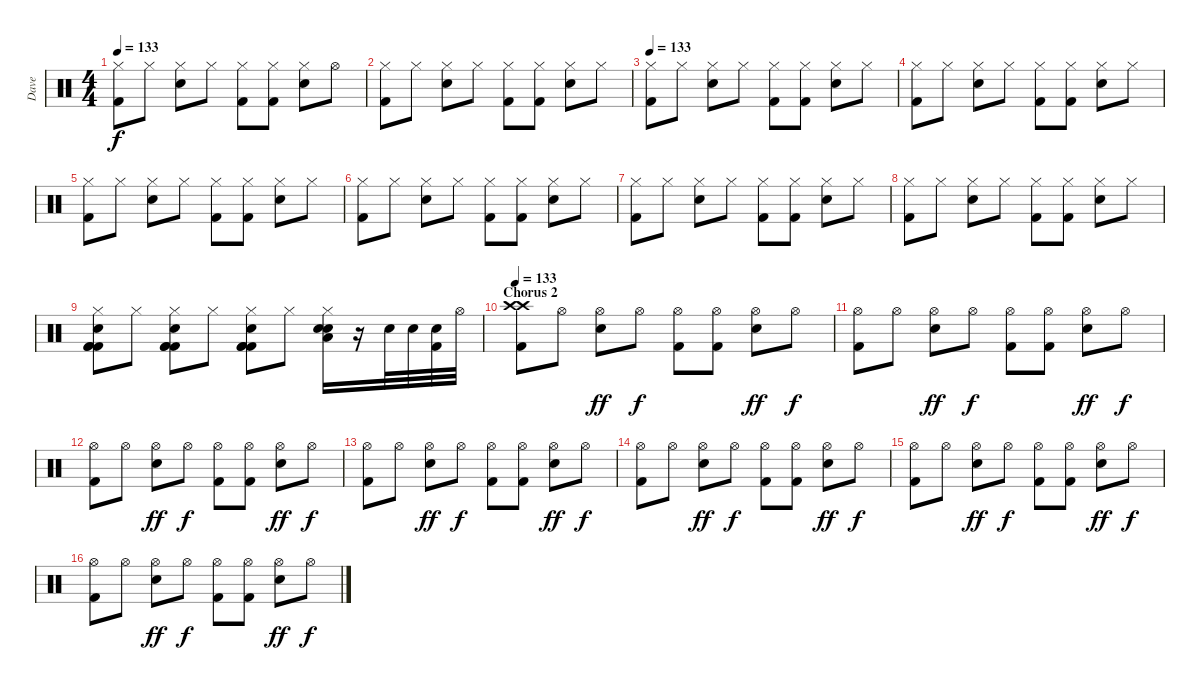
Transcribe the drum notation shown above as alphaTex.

\track ("Dave" "Dave") {instrument percussion}
\staff {score}
\articulation defaults
\ts (4 4)
\tempo 133
\clef neutral
\ks c
("Hi-Hat (closed)" "Kick (hit) 2").8{dy f} "Hi-Hat (closed)".8 ("Hi-Hat (closed)" "Snare (hit) 2").8 "Hi-Hat (closed)".8 ("Hi-Hat (closed)" "Kick (hit) 2").8 ("Hi-Hat (closed)" "Kick (hit) 2").8 ("Hi-Hat (closed)" "Snare (hit) 2").8 "Hi-Hat (open)".8 |
("Hi-Hat (closed)" "Kick (hit) 2").8 "Hi-Hat (closed)".8 ("Hi-Hat (closed)" "Snare (hit) 2").8 "Hi-Hat (closed)".8 ("Hi-Hat (closed)" "Kick (hit) 2").8 ("Hi-Hat (closed)" "Kick (hit) 2").8 ("Hi-Hat (closed)" "Snare (hit) 2").8 "Hi-Hat (closed)".8 |
\tempo 133
("Hi-Hat (closed)" "Kick (hit) 2").8 "Hi-Hat (closed)".8 ("Hi-Hat (closed)" "Snare (hit) 2").8 "Hi-Hat (closed)".8 ("Hi-Hat (closed)" "Kick (hit) 2").8 ("Hi-Hat (closed)" "Kick (hit) 2").8 ("Hi-Hat (closed)" "Snare (hit) 2").8 "Hi-Hat (closed)".8 |
("Hi-Hat (closed)" "Kick (hit) 2").8 "Hi-Hat (closed)".8 ("Hi-Hat (closed)" "Snare (hit) 2").8 "Hi-Hat (closed)".8 ("Hi-Hat (closed)" "Kick (hit) 2").8 ("Hi-Hat (closed)" "Kick (hit) 2").8 ("Hi-Hat (closed)" "Snare (hit) 2").8 "Hi-Hat (closed)".8 |
("Hi-Hat (closed)" "Kick (hit) 2").8 "Hi-Hat (closed)".8 ("Hi-Hat (closed)" "Snare (hit) 2").8 "Hi-Hat (closed)".8 ("Hi-Hat (closed)" "Kick (hit) 2").8 ("Hi-Hat (closed)" "Kick (hit) 2").8 ("Hi-Hat (closed)" "Snare (hit) 2").8 "Hi-Hat (closed)".8 |
("Hi-Hat (closed)" "Kick (hit) 2").8 "Hi-Hat (closed)".8 ("Hi-Hat (closed)" "Snare (hit) 2").8 "Hi-Hat (closed)".8 ("Hi-Hat (closed)" "Kick (hit) 2").8 ("Hi-Hat (closed)" "Kick (hit) 2").8 ("Hi-Hat (closed)" "Snare (hit) 2").8 "Hi-Hat (closed)".8 |
("Hi-Hat (closed)" "Kick (hit) 2").8 "Hi-Hat (closed)".8 ("Hi-Hat (closed)" "Snare (hit) 2").8 "Hi-Hat (closed)".8 ("Hi-Hat (closed)" "Kick (hit) 2").8 ("Hi-Hat (closed)" "Kick (hit) 2").8 ("Hi-Hat (closed)" "Snare (hit) 2").8 "Hi-Hat (closed)".8 |
("Hi-Hat (closed)" "Kick (hit) 2").8 "Hi-Hat (closed)".8 ("Hi-Hat (closed)" "Snare (hit) 2").8 "Hi-Hat (closed)".8 ("Hi-Hat (closed)" "Kick (hit) 2").8 ("Hi-Hat (closed)" "Kick (hit) 2").8 ("Hi-Hat (closed)" "Snare (hit) 2").8 "Hi-Hat (closed)".8 |
("Hi-Hat (closed)" "Snare (hit) 2" "Kick (hit) 2" "Kick (hit) 2" "Kick (hit) 2").8 "Hi-Hat (closed)".8 ("Hi-Hat (closed)" "Snare (hit) 2" "Kick (hit) 2" "Kick (hit) 2" "Kick (hit) 2").8 "Hi-Hat (closed)".8 ("Hi-Hat (closed)" "Snare (hit) 2" "Kick (hit) 2" "Kick (hit) 2" "Kick (hit) 2").8 "Hi-Hat (closed)".8 ("Hi-Hat (closed)" "Snare (hit) 2" "Low Tom (hit)" "Snare (hit) 2").16 r.16 "Snare (hit) 2".32 "Snare (hit) 2".32 ("Snare (hit) 2" "Kick (hit) 2").32 "Hi-Hat (open)".32 |
\section ("" "Chorus 2")
\tempo 133
("Crash high (hit)" "Crash high (hit)" "Kick (hit) 2").8 "Hi-Hat (open)".8 ("Hi-Hat (open)" "Snare (hit) 2").8{dy ff} "Hi-Hat (open)".8{dy f} ("Hi-Hat (open)" "Kick (hit) 2").8 ("Hi-Hat (open)" "Kick (hit) 2").8 ("Hi-Hat (open)" "Snare (hit) 2").8{dy ff} "Hi-Hat (open)".8{dy f} |
("Hi-Hat (open)" "Kick (hit) 2").8 "Hi-Hat (open)".8 ("Hi-Hat (open)" "Snare (hit) 2").8{dy ff} "Hi-Hat (open)".8{dy f} ("Hi-Hat (open)" "Kick (hit) 2").8 ("Hi-Hat (open)" "Kick (hit) 2").8 ("Hi-Hat (open)" "Snare (hit) 2").8{dy ff} "Hi-Hat (open)".8{dy f} |
("Hi-Hat (open)" "Kick (hit) 2").8 "Hi-Hat (open)".8 ("Hi-Hat (open)" "Snare (hit) 2").8{dy ff} "Hi-Hat (open)".8{dy f} ("Hi-Hat (open)" "Kick (hit) 2").8 ("Hi-Hat (open)" "Kick (hit) 2").8 ("Hi-Hat (open)" "Snare (hit) 2").8{dy ff} "Hi-Hat (open)".8{dy f} |
("Hi-Hat (open)" "Kick (hit) 2").8 "Hi-Hat (open)".8 ("Hi-Hat (open)" "Snare (hit) 2").8{dy ff} "Hi-Hat (open)".8{dy f} ("Hi-Hat (open)" "Kick (hit) 2").8 ("Hi-Hat (open)" "Kick (hit) 2").8 ("Hi-Hat (open)" "Snare (hit) 2").8{dy ff} "Hi-Hat (open)".8{dy f} |
("Hi-Hat (open)" "Kick (hit) 2").8 "Hi-Hat (open)".8 ("Hi-Hat (open)" "Snare (hit) 2").8{dy ff} "Hi-Hat (open)".8{dy f} ("Hi-Hat (open)" "Kick (hit) 2").8 ("Hi-Hat (open)" "Kick (hit) 2").8 ("Hi-Hat (open)" "Snare (hit) 2").8{dy ff} "Hi-Hat (open)".8{dy f} |
("Hi-Hat (open)" "Kick (hit) 2").8 "Hi-Hat (open)".8 ("Hi-Hat (open)" "Snare (hit) 2").8{dy ff} "Hi-Hat (open)".8{dy f} ("Hi-Hat (open)" "Kick (hit) 2").8 ("Hi-Hat (open)" "Kick (hit) 2").8 ("Hi-Hat (open)" "Snare (hit) 2").8{dy ff} "Hi-Hat (open)".8{dy f} |
("Hi-Hat (open)" "Kick (hit) 2").8 "Hi-Hat (open)".8 ("Hi-Hat (open)" "Snare (hit) 2").8{dy ff} "Hi-Hat (open)".8{dy f} ("Hi-Hat (open)" "Kick (hit) 2").8 ("Hi-Hat (open)" "Kick (hit) 2").8 ("Hi-Hat (open)" "Snare (hit) 2").8{dy ff} "Hi-Hat (open)".8{dy f}
